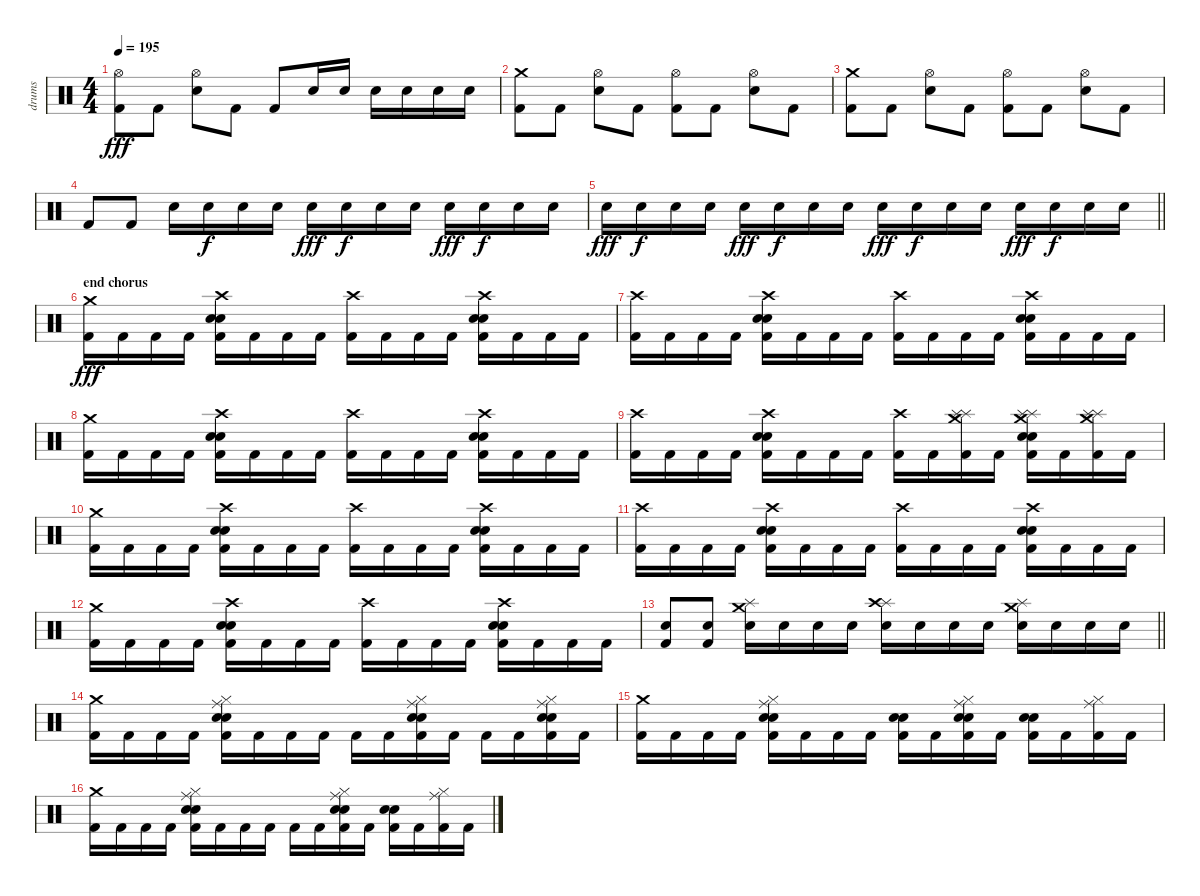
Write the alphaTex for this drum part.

\track ("drums" "drums") {instrument percussion bank 16}
\staff {score}
\articulation defaults
\ts (4 4)
\tempo 195
\clef neutral
\ks c
("Hi-Hat (open)" "Kick (hit) 2").8{dy fff} "Kick (hit) 2".8 ("Hi-Hat (open)" "Electric Snare (hit)").8 "Kick (hit) 2".8 "Kick (hit) 2".8 "Electric Snare (hit)".16 "Electric Snare (hit)".16 "Electric Snare (hit)".16 "Electric Snare (hit)".16 "Electric Snare (hit)".16 "Electric Snare (hit)".16 |
("Crash medium (hit)" "Kick (hit) 2").8 "Kick (hit) 2".8 ("Hi-Hat (open)" "Electric Snare (hit)").8 "Kick (hit) 2".8 ("Hi-Hat (open)" "Kick (hit) 2").8 "Kick (hit) 2".8 ("Hi-Hat (open)" "Electric Snare (hit)").8 "Kick (hit) 2".8 |
("Crash medium (hit)" "Kick (hit) 2").8 "Kick (hit) 2".8 ("Hi-Hat (open)" "Electric Snare (hit)").8 "Kick (hit) 2".8 ("Hi-Hat (open)" "Kick (hit) 2").8 "Kick (hit) 2".8 ("Hi-Hat (open)" "Electric Snare (hit)").8 "Kick (hit) 2".8 |
"Kick (hit) 2".8 "Kick (hit) 2".8 "Electric Snare (hit)".16 "Electric Snare (hit)".16{dy f} "Electric Snare (hit)".16 "Electric Snare (hit)".16 "Electric Snare (hit)".16{dy fff} "Electric Snare (hit)".16{dy f} "Electric Snare (hit)".16 "Electric Snare (hit)".16 "Electric Snare (hit)".16{dy fff} "Electric Snare (hit)".16{dy f} "Electric Snare (hit)".16 "Electric Snare (hit)".16 |
\barLineRight lightlight "Electric Snare (hit)".16{dy fff} "Electric Snare (hit)".16{dy f} "Electric Snare (hit)".16 "Electric Snare (hit)".16 "Electric Snare (hit)".16{dy fff} "Electric Snare (hit)".16{dy f} "Electric Snare (hit)".16 "Electric Snare (hit)".16 "Electric Snare (hit)".16{dy fff} "Electric Snare (hit)".16{dy f} "Electric Snare (hit)".16 "Electric Snare (hit)".16 "Electric Snare (hit)".16{dy fff} "Electric Snare (hit)".16{dy f} "Electric Snare (hit)".16 "Electric Snare (hit)".16
|
\section ("" "end chorus")
("Crash medium (hit)" "Kick (hit) 2").16{dy fff} "Kick (hit) 2".16 "Kick (hit) 2".16 "Kick (hit) 2".16 ("Crash high (hit)" "Electric Snare (hit)" "Electric Snare (hit)" "Kick (hit) 2").16 "Kick (hit) 2".16 "Kick (hit) 2".16 "Kick (hit) 2".16 ("Crash high (hit)" "Kick (hit) 2").16 "Kick (hit) 2".16 "Kick (hit) 2".16 "Kick (hit) 2".16 ("Crash high (hit)" "Electric Snare (hit)" "Electric Snare (hit)" "Kick (hit) 2").16 "Kick (hit) 2".16 "Kick (hit) 2".16 "Kick (hit) 2".16 |
("Crash high (hit)" "Kick (hit) 2").16 "Kick (hit) 2".16 "Kick (hit) 2".16 "Kick (hit) 2".16 ("Crash high (hit)" "Electric Snare (hit)" "Electric Snare (hit)" "Kick (hit) 2").16 "Kick (hit) 2".16 "Kick (hit) 2".16 "Kick (hit) 2".16 ("Crash high (hit)" "Kick (hit) 2").16 "Kick (hit) 2".16 "Kick (hit) 2".16 "Kick (hit) 2".16 ("Crash high (hit)" "Electric Snare (hit)" "Electric Snare (hit)" "Kick (hit) 2").16 "Kick (hit) 2".16 "Kick (hit) 2".16 "Kick (hit) 2".16 |
("Crash medium (hit)" "Kick (hit) 2").16 "Kick (hit) 2".16 "Kick (hit) 2".16 "Kick (hit) 2".16 ("Crash high (hit)" "Electric Snare (hit)" "Electric Snare (hit)" "Kick (hit) 2").16 "Kick (hit) 2".16 "Kick (hit) 2".16 "Kick (hit) 2".16 ("Crash high (hit)" "Kick (hit) 2").16 "Kick (hit) 2".16 "Kick (hit) 2".16 "Kick (hit) 2".16 ("Crash high (hit)" "Electric Snare (hit)" "Electric Snare (hit)" "Kick (hit) 2").16 "Kick (hit) 2".16 "Kick (hit) 2".16 "Kick (hit) 2".16 |
("Crash high (hit)" "Kick (hit) 2").16 "Kick (hit) 2".16 "Kick (hit) 2".16 "Kick (hit) 2".16 ("Crash high (hit)" "Electric Snare (hit)" "Electric Snare (hit)" "Kick (hit) 2").16 "Kick (hit) 2".16 "Kick (hit) 2".16 "Kick (hit) 2".16 ("Crash high (hit)" "Kick (hit) 2").16 "Kick (hit) 2".16 ("Splash (hit)" "Splash (hit)" "Crash medium (hit)" "Kick (hit) 2").16 "Kick (hit) 2".16 ("Splash (hit)" "Splash (hit)" "Crash medium (hit)" "Electric Snare (hit)" "Electric Snare (hit)" "Kick (hit) 2").16 "Kick (hit) 2".16 ("Splash (hit)" "Splash (hit)" "Crash medium (hit)" "Kick (hit) 2").16 "Kick (hit) 2".16 |
("Crash medium (hit)" "Kick (hit) 2").16 "Kick (hit) 2".16 "Kick (hit) 2".16 "Kick (hit) 2".16 ("Crash high (hit)" "Electric Snare (hit)" "Electric Snare (hit)" "Kick (hit) 2").16 "Kick (hit) 2".16 "Kick (hit) 2".16 "Kick (hit) 2".16 ("Crash high (hit)" "Kick (hit) 2").16 "Kick (hit) 2".16 "Kick (hit) 2".16 "Kick (hit) 2".16 ("Crash high (hit)" "Electric Snare (hit)" "Electric Snare (hit)" "Kick (hit) 2").16 "Kick (hit) 2".16 "Kick (hit) 2".16 "Kick (hit) 2".16 |
("Crash high (hit)" "Kick (hit) 2").16 "Kick (hit) 2".16 "Kick (hit) 2".16 "Kick (hit) 2".16 ("Crash high (hit)" "Electric Snare (hit)" "Electric Snare (hit)" "Kick (hit) 2").16 "Kick (hit) 2".16 "Kick (hit) 2".16 "Kick (hit) 2".16 ("Crash high (hit)" "Kick (hit) 2").16 "Kick (hit) 2".16 "Kick (hit) 2".16 "Kick (hit) 2".16 ("Crash high (hit)" "Electric Snare (hit)" "Electric Snare (hit)" "Kick (hit) 2").16 "Kick (hit) 2".16 "Kick (hit) 2".16 "Kick (hit) 2".16 |
("Crash medium (hit)" "Kick (hit) 2").16 "Kick (hit) 2".16 "Kick (hit) 2".16 "Kick (hit) 2".16 ("Crash high (hit)" "Electric Snare (hit)" "Electric Snare (hit)" "Kick (hit) 2").16 "Kick (hit) 2".16 "Kick (hit) 2".16 "Kick (hit) 2".16 ("Crash high (hit)" "Kick (hit) 2").16 "Kick (hit) 2".16 "Kick (hit) 2".16 "Kick (hit) 2".16 ("Crash high (hit)" "Electric Snare (hit)" "Electric Snare (hit)" "Kick (hit) 2").16 "Kick (hit) 2".16 "Kick (hit) 2".16 "Kick (hit) 2".16 |
\barLineRight lightlight
("Electric Snare (hit)" "Kick (hit) 2").8 ("Electric Snare (hit)" "Kick (hit) 2").8 ("Splash (hit)" "Crash medium (hit)" "Electric Snare (hit)").16 "Electric Snare (hit)".16 "Electric Snare (hit)".16 "Electric Snare (hit)".16 ("Splash (hit)" "Crash high (hit)" "Electric Snare (hit)").16 "Electric Snare (hit)".16 "Electric Snare (hit)".16 "Electric Snare (hit)".16 ("Splash (hit)" "Crash medium (hit)" "Electric Snare (hit)").16 "Electric Snare (hit)".16 "Electric Snare (hit)".16 "Electric Snare (hit)".16 |
("Crash medium (hit)" "Kick (hit) 2").16 "Kick (hit) 2".16 "Kick (hit) 2".16 "Kick (hit) 2".16 ("Hi-Hat (closed)" "Ride (middle)" "Electric Snare (hit)" "Electric Snare (hit)" "Kick (hit) 2").16 "Kick (hit) 2".16 "Kick (hit) 2".16 "Kick (hit) 2".16 "Kick (hit) 2".16 "Kick (hit) 2".16 ("Hi-Hat (closed)" "Ride (middle)" "Electric Snare (hit)" "Electric Snare (hit)" "Kick (hit) 2").16 "Kick (hit) 2".16 "Kick (hit) 2".16 "Kick (hit) 2".16 ("Hi-Hat (closed)" "Ride (middle)" "Electric Snare (hit)" "Electric Snare (hit)" "Kick (hit) 2").16 "Kick (hit) 2".16 |
("Crash medium (hit)" "Kick (hit) 2").16 "Kick (hit) 2".16 "Kick (hit) 2".16 "Kick (hit) 2".16 ("Hi-Hat (closed)" "Ride (middle)" "Electric Snare (hit)" "Electric Snare (hit)" "Kick (hit) 2").16 "Kick (hit) 2".16 "Kick (hit) 2".16 "Kick (hit) 2".16 ("Electric Snare (hit)" "Electric Snare (hit)" "Kick (hit) 2").16 "Kick (hit) 2".16 ("Hi-Hat (closed)" "Ride (middle)" "Electric Snare (hit)" "Electric Snare (hit)" "Kick (hit) 2").16 "Kick (hit) 2".16 ("Electric Snare (hit)" "Electric Snare (hit)" "Kick (hit) 2").16 "Kick (hit) 2".16 ("Hi-Hat (closed)" "Ride (middle)" "Kick (hit) 2").16 "Kick (hit) 2".16 |
("Crash medium (hit)" "Kick (hit) 2").16 "Kick (hit) 2".16 "Kick (hit) 2".16 "Kick (hit) 2".16 ("Hi-Hat (closed)" "Ride (middle)" "Electric Snare (hit)" "Electric Snare (hit)" "Kick (hit) 2").16 "Kick (hit) 2".16 "Kick (hit) 2".16 "Kick (hit) 2".16 "Kick (hit) 2".16 "Kick (hit) 2".16 ("Hi-Hat (closed)" "Ride (middle)" "Electric Snare (hit)" "Electric Snare (hit)" "Kick (hit) 2").16 "Kick (hit) 2".16 ("Electric Snare (hit)" "Electric Snare (hit)" "Kick (hit) 2").16 "Kick (hit) 2".16 ("Hi-Hat (closed)" "Ride (middle)" "Kick (hit) 2").16 "Kick (hit) 2".16
